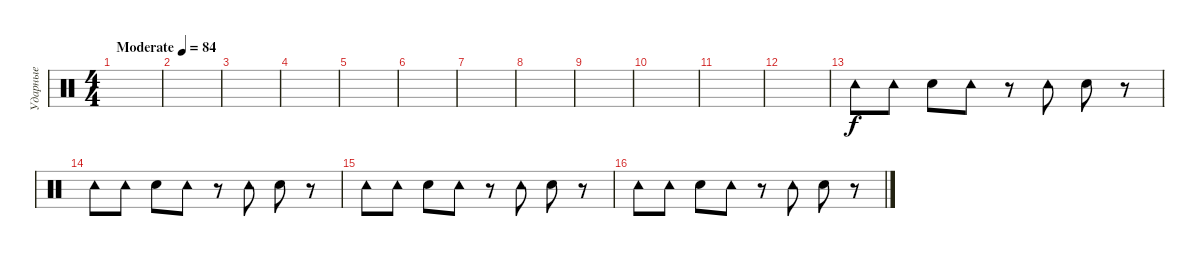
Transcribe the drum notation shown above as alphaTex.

\track ("Ударные" "Ударные") {instrument percussion}
\staff {score}
\articulation defaults
\ts (4 4)
\tempo (84 "Moderate")
\clef neutral
\ks c
|
|
|
|
|
|
|
|
|
|
|
|
"Tambourine (hit)".8 "Tambourine (hit)".8 "Snare (hit)".8 "Tambourine (hit)".8 r.8 "Tambourine (hit)".8 "Snare (hit)".8 r.8 |
"Tambourine (hit)".8 "Tambourine (hit)".8 "Snare (hit)".8 "Tambourine (hit)".8 r.8 "Tambourine (hit)".8 "Snare (hit)".8 r.8 |
"Tambourine (hit)".8 "Tambourine (hit)".8 "Snare (hit)".8 "Tambourine (hit)".8 r.8 "Tambourine (hit)".8 "Snare (hit)".8 r.8 |
"Tambourine (hit)".8 "Tambourine (hit)".8 "Snare (hit)".8 "Tambourine (hit)".8 r.8 "Tambourine (hit)".8 "Snare (hit)".8 r.8
